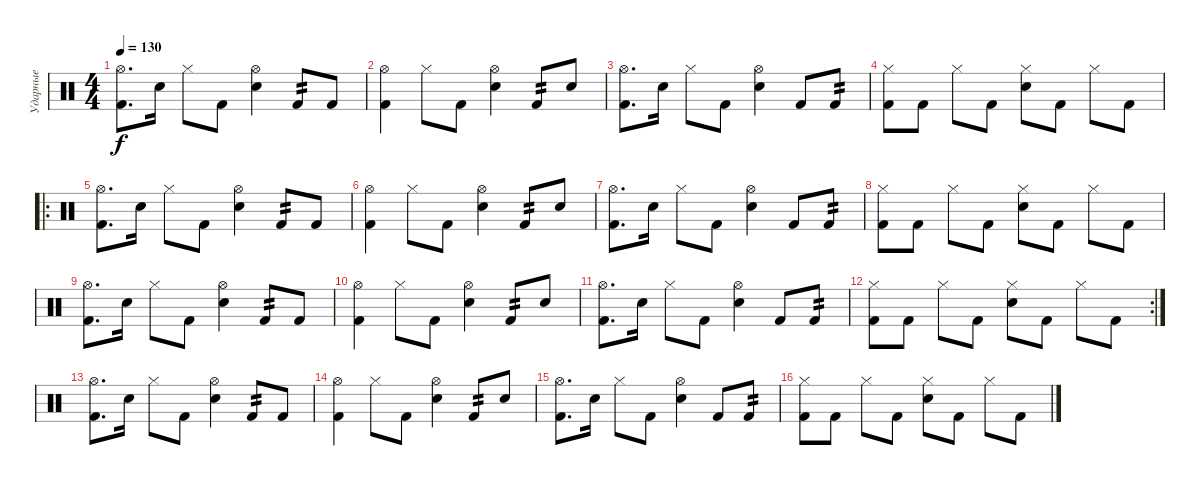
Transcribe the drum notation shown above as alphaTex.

\track ("Ударные" "Ударные") {instrument percussion}
\staff {score}
\articulation defaults
\ts (4 4)
\tempo 130
\clef neutral
\ks c
("Hi-Hat (open)" "Kick (hit) 2").8{d dy f} "Snare (hit) 2".16 "Hi-Hat (closed)".8 "Kick (hit) 2".8 ("Hi-Hat (open)" "Snare (hit) 2").4 "Kick (hit) 2".8{tp 2} "Kick (hit) 2".8 |
("Hi-Hat (open)" "Kick (hit) 2").4 "Hi-Hat (closed)".8 "Kick (hit) 2".8 ("Hi-Hat (open)" "Snare (hit) 2").4 "Kick (hit) 2".8{tp 2} "Snare (hit) 2".8 |
("Hi-Hat (open)" "Kick (hit) 2").8{d} "Snare (hit) 2".16 "Hi-Hat (closed)".8 "Kick (hit) 2".8 ("Hi-Hat (open)" "Snare (hit) 2").4 "Kick (hit) 2".8 "Kick (hit) 2".8{tp 2} |
("Hi-Hat (closed)" "Kick (hit) 2").8 "Kick (hit) 2".8 "Hi-Hat (closed)".8 "Kick (hit) 2".8 ("Hi-Hat (closed)" "Snare (hit) 2").8 "Kick (hit) 2".8 "Hi-Hat (closed)".8 "Kick (hit) 2".8 |
\ro
("Hi-Hat (open)" "Kick (hit) 2").8{d} "Snare (hit) 2".16 "Hi-Hat (closed)".8 "Kick (hit) 2".8 ("Hi-Hat (open)" "Snare (hit) 2").4 "Kick (hit) 2".8{tp 2} "Kick (hit) 2".8 |
("Hi-Hat (open)" "Kick (hit) 2").4 "Hi-Hat (closed)".8 "Kick (hit) 2".8 ("Hi-Hat (open)" "Snare (hit) 2").4 "Kick (hit) 2".8{tp 2} "Snare (hit) 2".8 |
("Hi-Hat (open)" "Kick (hit) 2").8{d} "Snare (hit) 2".16 "Hi-Hat (closed)".8 "Kick (hit) 2".8 ("Hi-Hat (open)" "Snare (hit) 2").4 "Kick (hit) 2".8 "Kick (hit) 2".8{tp 2} |
("Hi-Hat (closed)" "Kick (hit) 2").8 "Kick (hit) 2".8 "Hi-Hat (closed)".8 "Kick (hit) 2".8 ("Hi-Hat (closed)" "Snare (hit) 2").8 "Kick (hit) 2".8 "Hi-Hat (closed)".8 "Kick (hit) 2".8 |
("Hi-Hat (open)" "Kick (hit) 2").8{d} "Snare (hit) 2".16 "Hi-Hat (closed)".8 "Kick (hit) 2".8 ("Hi-Hat (open)" "Snare (hit) 2").4 "Kick (hit) 2".8{tp 2} "Kick (hit) 2".8 |
("Hi-Hat (open)" "Kick (hit) 2").4 "Hi-Hat (closed)".8 "Kick (hit) 2".8 ("Hi-Hat (open)" "Snare (hit) 2").4 "Kick (hit) 2".8{tp 2} "Snare (hit) 2".8 |
("Hi-Hat (open)" "Kick (hit) 2").8{d} "Snare (hit) 2".16 "Hi-Hat (closed)".8 "Kick (hit) 2".8 ("Hi-Hat (open)" "Snare (hit) 2").4 "Kick (hit) 2".8 "Kick (hit) 2".8{tp 2} |
\rc 2
("Hi-Hat (closed)" "Kick (hit) 2").8 "Kick (hit) 2".8 "Hi-Hat (closed)".8 "Kick (hit) 2".8 ("Hi-Hat (closed)" "Snare (hit) 2").8 "Kick (hit) 2".8 "Hi-Hat (closed)".8 "Kick (hit) 2".8 |
("Hi-Hat (open)" "Kick (hit) 2").8{d} "Snare (hit) 2".16 "Hi-Hat (closed)".8 "Kick (hit) 2".8 ("Hi-Hat (open)" "Snare (hit) 2").4 "Kick (hit) 2".8{tp 2} "Kick (hit) 2".8 |
("Hi-Hat (open)" "Kick (hit) 2").4 "Hi-Hat (closed)".8 "Kick (hit) 2".8 ("Hi-Hat (open)" "Snare (hit) 2").4 "Kick (hit) 2".8{tp 2} "Snare (hit) 2".8 |
("Hi-Hat (open)" "Kick (hit) 2").8{d} "Snare (hit) 2".16 "Hi-Hat (closed)".8 "Kick (hit) 2".8 ("Hi-Hat (open)" "Snare (hit) 2").4 "Kick (hit) 2".8 "Kick (hit) 2".8{tp 2} |
("Hi-Hat (closed)" "Kick (hit) 2").8 "Kick (hit) 2".8 "Hi-Hat (closed)".8 "Kick (hit) 2".8 ("Hi-Hat (closed)" "Snare (hit) 2").8 "Kick (hit) 2".8 "Hi-Hat (closed)".8 "Kick (hit) 2".8
